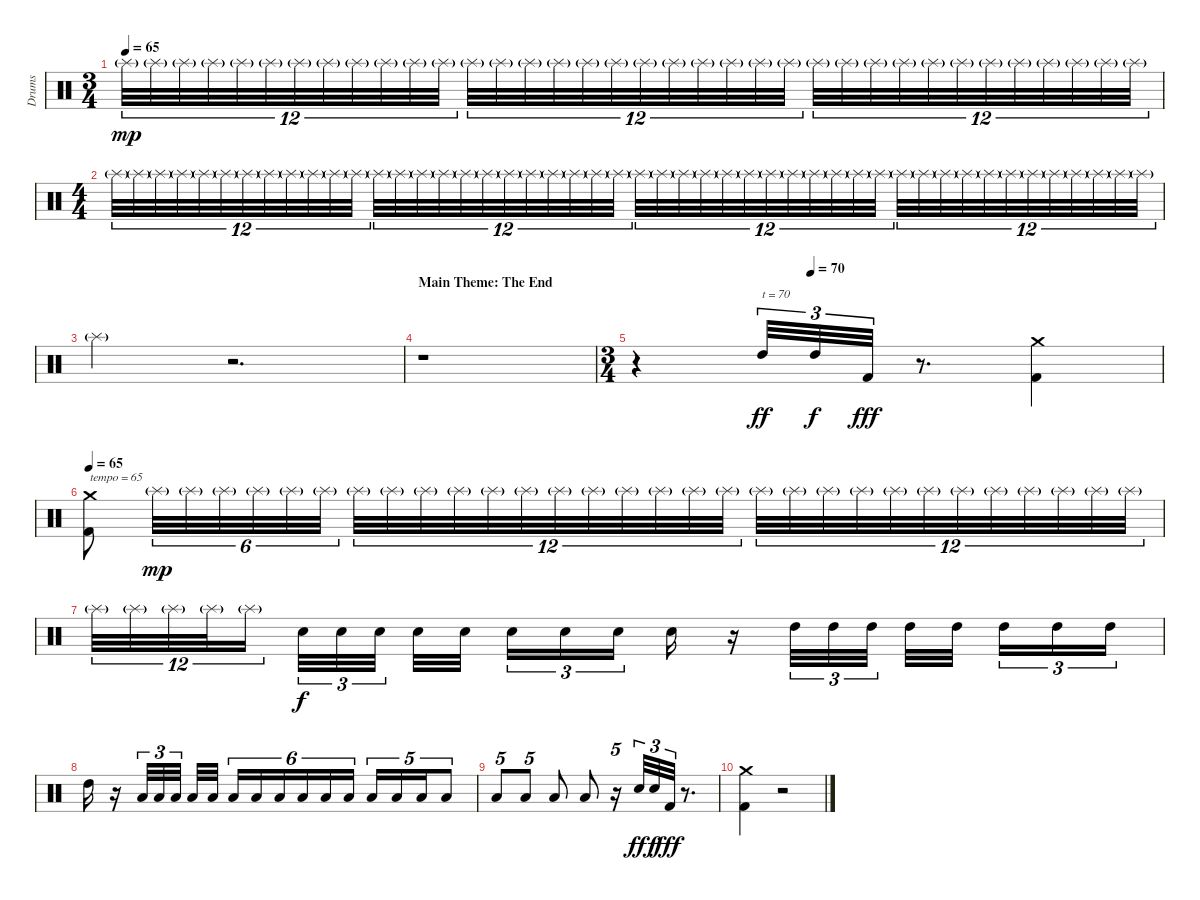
\track ("Drums" "Drums") {instrument percussion}
\staff {score}
\articulation defaults
\ts (3 4)
\tempo 65
\clef neutral
\ks c "Splash (hit)"{g}.32{tu (12 8) dy mp} "Splash (hit)"{g}.32{tu (12 8)} "Splash (hit)"{g}.32{tu (12 8)} "Splash (hit)"{g}.32{tu (12 8)} "Splash (hit)"{g}.32{tu (12 8)} "Splash (hit)"{g}.32{tu (12 8)} "Splash (hit)"{g}.32{tu (12 8)} "Splash (hit)"{g}.32{tu (12 8)} "Splash (hit)"{g}.32{tu (12 8)} "Splash (hit)"{g}.32{tu (12 8)} "Splash (hit)"{g}.32{tu (12 8)} "Splash (hit)"{g}.32{tu (12 8)} "Splash (hit)"{g}.32{tu (12 8)} "Splash (hit)"{g}.32{tu (12 8)} "Splash (hit)"{g}.32{tu (12 8)} "Splash (hit)"{g}.32{tu (12 8)} "Splash (hit)"{g}.32{tu (12 8)} "Splash (hit)"{g}.32{tu (12 8)} "Splash (hit)"{g}.32{tu (12 8)} "Splash (hit)"{g}.32{tu (12 8)} "Splash (hit)"{g}.32{tu (12 8)} "Splash (hit)"{g}.32{tu (12 8)} "Splash (hit)"{g}.32{tu (12 8)} "Splash (hit)"{g}.32{tu (12 8)} "Splash (hit)"{g}.32{tu (12 8)} "Splash (hit)"{g}.32{tu (12 8)} "Splash (hit)"{g}.32{tu (12 8)} "Splash (hit)"{g}.32{tu (12 8)} "Splash (hit)"{g}.32{tu (12 8)} "Splash (hit)"{g}.32{tu (12 8)} "Splash (hit)"{g}.32{tu (12 8)} "Splash (hit)"{g}.32{tu (12 8)} "Splash (hit)"{g}.32{tu (12 8)} "Splash (hit)"{g}.32{tu (12 8)} "Splash (hit)"{g}.32{tu (12 8)} "Splash (hit)"{g}.32{tu (12 8)}
|
\ts (4 4)
"Splash (hit)"{g}.32{tu (12 8)} "Splash (hit)"{g}.32{tu (12 8)} "Splash (hit)"{g}.32{tu (12 8)} "Splash (hit)"{g}.32{tu (12 8)} "Splash (hit)"{g}.32{tu (12 8)} "Splash (hit)"{g}.32{tu (12 8)} "Splash (hit)"{g}.32{tu (12 8)} "Splash (hit)"{g}.32{tu (12 8)} "Splash (hit)"{g}.32{tu (12 8)} "Splash (hit)"{g}.32{tu (12 8)} "Splash (hit)"{g}.32{tu (12 8)} "Splash (hit)"{g}.32{tu (12 8)} "Splash (hit)"{g}.32{tu (12 8)} "Splash (hit)"{g}.32{tu (12 8)} "Splash (hit)"{g}.32{tu (12 8)} "Splash (hit)"{g}.32{tu (12 8)} "Splash (hit)"{g}.32{tu (12 8)} "Splash (hit)"{g}.32{tu (12 8)} "Splash (hit)"{g}.32{tu (12 8)} "Splash (hit)"{g}.32{tu (12 8)} "Splash (hit)"{g}.32{tu (12 8)} "Splash (hit)"{g}.32{tu (12 8)} "Splash (hit)"{g}.32{tu (12 8)} "Splash (hit)"{g}.32{tu (12 8)} "Splash (hit)"{g}.32{tu (12 8)} "Splash (hit)"{g}.32{tu (12 8)} "Splash (hit)"{g}.32{tu (12 8)} "Splash (hit)"{g}.32{tu (12 8)} "Splash (hit)"{g}.32{tu (12 8)} "Splash (hit)"{g}.32{tu (12 8)} "Splash (hit)"{g}.32{tu (12 8)} "Splash (hit)"{g}.32{tu (12 8)} "Splash (hit)"{g}.32{tu (12 8)} "Splash (hit)"{g}.32{tu (12 8)} "Splash (hit)"{g}.32{tu (12 8)} "Splash (hit)"{g}.32{tu (12 8)} "Splash (hit)"{g}.32{tu (12 8)} "Splash (hit)"{g}.32{tu (12 8)} "Splash (hit)"{g}.32{tu (12 8)} "Splash (hit)"{g}.32{tu (12 8)} "Splash (hit)"{g}.32{tu (12 8)} "Splash (hit)"{g}.32{tu (12 8)} "Splash (hit)"{g}.32{tu (12 8)} "Splash (hit)"{g}.32{tu (12 8)} "Splash (hit)"{g}.32{tu (12 8)} "Splash (hit)"{g}.32{tu (12 8)} "Splash (hit)"{g}.32{tu (12 8)} "Splash (hit)"{g}.32{tu (12 8)} |
"Splash (hit)"{g}.4 r.2{d} |
\section ("" "Main Theme: The End")
r.1 |
\ts (3 4)
\tempo (70 0.3333333333333333)
r.4 "High Tom (hit)".32{tu (3 2) txt "t = 70" dy ff} "High Tom (hit)".32{tu (3 2) dy f} "Kick (hit) 2".32{tu (3 2) dy fff} r.8{d} ("Crash medium (hit)" "Kick (hit) 2").4 |
\tempo 65
("Crash medium (hit)" "Kick (hit) 2").8{txt "tempo = 65"} "Splash (hit)"{g}.32{tu (6 4) dy mp} "Splash (hit)"{g}.32{tu (6 4)} "Splash (hit)"{g}.32{tu (6 4)} "Splash (hit)"{g}.32{tu (6 4)} "Splash (hit)"{g}.32{tu (6 4)} "Splash (hit)"{g}.32{tu (6 4)} "Splash (hit)"{g}.32{tu (12 8)} "Splash (hit)"{g}.32{tu (12 8)} "Splash (hit)"{g}.32{tu (12 8)} "Splash (hit)"{g}.32{tu (12 8)} "Splash (hit)"{g}.32{tu (12 8)} "Splash (hit)"{g}.32{tu (12 8)} "Splash (hit)"{g}.32{tu (12 8)} "Splash (hit)"{g}.32{tu (12 8)} "Splash (hit)"{g}.32{tu (12 8)} "Splash (hit)"{g}.32{tu (12 8)} "Splash (hit)"{g}.32{tu (12 8)} "Splash (hit)"{g}.32{tu (12 8)} "Splash (hit)"{g}.32{tu (12 8)} "Splash (hit)"{g}.32{tu (12 8)} "Splash (hit)"{g}.32{tu (12 8)} "Splash (hit)"{g}.32{tu (12 8)} "Splash (hit)"{g}.32{tu (12 8)} "Splash (hit)"{g}.32{tu (12 8)} "Splash (hit)"{g}.32{tu (12 8)} "Splash (hit)"{g}.32{tu (12 8)} "Splash (hit)"{g}.32{tu (12 8)} "Splash (hit)"{g}.32{tu (12 8)} "Splash (hit)"{g}.32{tu (12 8)} "Splash (hit)"{g}.32{tu (12 8)} |
"Splash (hit)"{g}.32{tu (12 8)} "Splash (hit)"{g}.32{tu (12 8)} "Splash (hit)"{g}.32{tu (12 8)} "Splash (hit)"{g}.32{tu (12 8)} "Splash (hit)"{g}.16{tu (12 8)} "Snare (hit) 2".32{tu (3 2) dy f} "Snare (hit) 2".32{tu (3 2)} "Snare (hit) 2".32{tu (3 2)} "Snare (hit) 2".32 "Snare (hit) 2".32 "Snare (hit) 2".16{tu (3 2)} "Snare (hit) 2".16{tu (3 2)} "Snare (hit) 2".16{tu (3 2)} "Snare (hit) 2".16 r.16 "High Tom (hit)".32{tu (3 2)} "High Tom (hit)".32{tu (3 2)} "High Tom (hit)".32{tu (3 2)} "High Tom (hit)".32 "High Tom (hit)".32 "High Tom (hit)".16{tu (3 2)} "High Tom (hit)".16{tu (3 2)} "High Tom (hit)".16{tu (3 2)} |
"High Tom (hit)".16 r.16 "Low Tom (hit)".32{tu (3 2)} "Low Tom (hit)".32{tu (3 2)} "Low Tom (hit)".32{tu (3 2)} "Low Tom (hit)".32 "Low Tom (hit)".32 "Low Tom (hit)".16{tu (6 4)} "Low Tom (hit)".16{tu (6 4)} "Low Tom (hit)".16{tu (6 4)} "Low Tom (hit)".16{tu (6 4)} "Low Tom (hit)".16{tu (6 4)} "Low Tom (hit)".16{tu (6 4)} "Low Tom (hit)".16{tu (5 4)} "Low Tom (hit)".16{tu (5 4)} "Low Tom (hit)".16{tu (5 4)} "Low Tom (hit)".8{tu (5 4)} |
"Low Tom (hit)".8{tu (5 4)} "Low Tom (hit)".8{tu (5 4)} "Low Tom (hit)".8 "Low Tom (hit)".8 r.16{tu (5 4)} "Snare (hit) 2".32{tu (3 2) dy ff} "Snare (hit) 2".32{tu (3 2) dy f} "Kick (hit) 2".32{tu (3 2) dy fff} r.8{d} |
("Crash medium (hit)" "Kick (hit) 2").4 r.2
